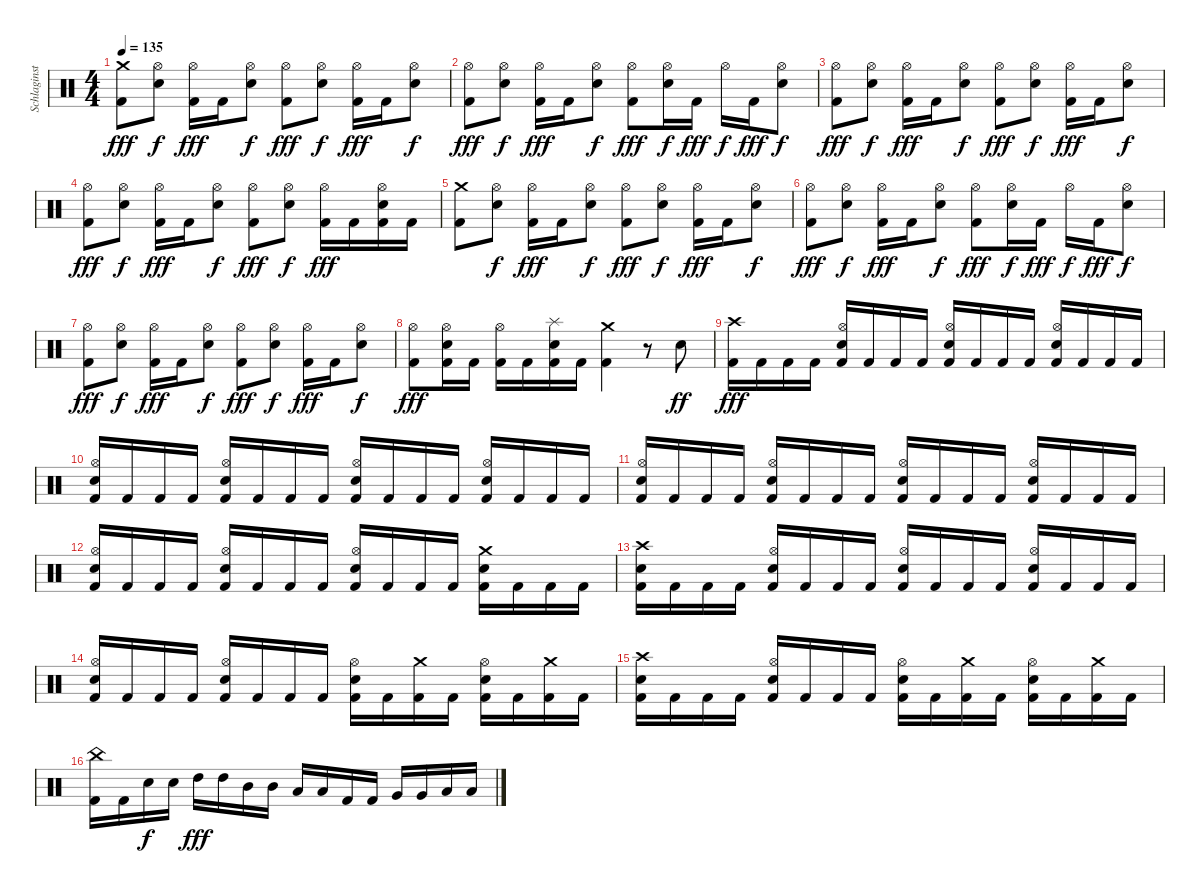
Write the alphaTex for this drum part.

\track ("Schlaginstrumente - Auswahl" "Schlaginst") {instrument percussion}
\staff {score}
\articulation defaults
\ts (4 4)
\tempo 135
\clef neutral
\ks c
("Crash medium (hit)" "Kick (hit) 2").8{dy fff} ("Hi-Hat (open)" "Snare (hit) 2").8{dy f} ("Hi-Hat (open)" "Kick (hit) 2").16{dy fff} "Kick (hit) 2".16 ("Hi-Hat (open)" "Snare (hit) 2").8{dy f} ("Hi-Hat (open)" "Kick (hit) 2").8{dy fff} ("Hi-Hat (open)" "Snare (hit) 2").8{dy f} ("Hi-Hat (open)" "Kick (hit) 2").16{dy fff} "Kick (hit) 2".16 ("Hi-Hat (open)" "Snare (hit) 2").8{dy f} |
("Hi-Hat (open)" "Kick (hit) 2").8{dy fff} ("Hi-Hat (open)" "Snare (hit) 2").8{dy f} ("Hi-Hat (open)" "Kick (hit) 2").16{dy fff} "Kick (hit) 2".16 ("Hi-Hat (open)" "Snare (hit) 2").8{dy f} ("Hi-Hat (open)" "Kick (hit) 2").8{dy fff} ("Hi-Hat (open)" "Snare (hit) 2").16{dy f} "Kick (hit) 2".16{dy fff} "Hi-Hat (open)".16{dy f} "Kick (hit) 2".16{dy fff} ("Hi-Hat (open)" "Snare (hit) 2").8{dy f} |
("Hi-Hat (open)" "Kick (hit) 2").8{dy fff} ("Hi-Hat (open)" "Snare (hit) 2").8{dy f} ("Hi-Hat (open)" "Kick (hit) 2").16{dy fff} "Kick (hit) 2".16 ("Hi-Hat (open)" "Snare (hit) 2").8{dy f} ("Hi-Hat (open)" "Kick (hit) 2").8{dy fff} ("Hi-Hat (open)" "Snare (hit) 2").8{dy f} ("Hi-Hat (open)" "Kick (hit) 2").16{dy fff} "Kick (hit) 2".16 ("Hi-Hat (open)" "Snare (hit) 2").8{dy f} |
("Hi-Hat (open)" "Kick (hit) 2").8{dy fff} ("Hi-Hat (open)" "Snare (hit) 2").8{dy f} ("Hi-Hat (open)" "Kick (hit) 2").16{dy fff} "Kick (hit) 2".16 ("Hi-Hat (open)" "Snare (hit) 2").8{dy f} ("Hi-Hat (open)" "Kick (hit) 2").8{dy fff} ("Hi-Hat (open)" "Snare (hit) 2").8{dy f} ("Hi-Hat (open)" "Kick (hit) 2").16{dy fff} "Kick (hit) 2".16 ("Hi-Hat (open)" "Snare (hit) 2" "Kick (hit) 2").16 "Kick (hit) 2".16 |
("Crash medium (hit)" "Kick (hit) 2").8 ("Hi-Hat (open)" "Snare (hit) 2").8{dy f} ("Hi-Hat (open)" "Kick (hit) 2").16{dy fff} "Kick (hit) 2".16 ("Hi-Hat (open)" "Snare (hit) 2").8{dy f} ("Hi-Hat (open)" "Kick (hit) 2").8{dy fff} ("Hi-Hat (open)" "Snare (hit) 2").8{dy f} ("Hi-Hat (open)" "Kick (hit) 2").16{dy fff} "Kick (hit) 2".16 ("Hi-Hat (open)" "Snare (hit) 2").8{dy f} |
("Hi-Hat (open)" "Kick (hit) 2").8{dy fff} ("Hi-Hat (open)" "Snare (hit) 2").8{dy f} ("Hi-Hat (open)" "Kick (hit) 2").16{dy fff} "Kick (hit) 2".16 ("Hi-Hat (open)" "Snare (hit) 2").8{dy f} ("Hi-Hat (open)" "Kick (hit) 2").8{dy fff} ("Hi-Hat (open)" "Snare (hit) 2").16{dy f} "Kick (hit) 2".16{dy fff} "Hi-Hat (open)".16{dy f} "Kick (hit) 2".16{dy fff} ("Hi-Hat (open)" "Snare (hit) 2").8{dy f} |
("Hi-Hat (open)" "Kick (hit) 2").8{dy fff} ("Hi-Hat (open)" "Snare (hit) 2").8{dy f} ("Hi-Hat (open)" "Kick (hit) 2").16{dy fff} "Kick (hit) 2".16 ("Hi-Hat (open)" "Snare (hit) 2").8{dy f} ("Hi-Hat (open)" "Kick (hit) 2").8{dy fff} ("Hi-Hat (open)" "Snare (hit) 2").8{dy f} ("Hi-Hat (open)" "Kick (hit) 2").16{dy fff} "Kick (hit) 2".16 ("Hi-Hat (open)" "Snare (hit) 2").8{dy f} |
("Hi-Hat (open)" "Kick (hit) 2").8{dy fff} ("Hi-Hat (open)" "Snare (hit) 2" "Kick (hit) 2").16 "Kick (hit) 2".16 ("Hi-Hat (open)" "Kick (hit) 2").16 "Kick (hit) 2".16 ("Splash (hit)" "Snare (hit) 2" "Kick (hit) 2").16 "Kick (hit) 2".16 ("Crash medium (hit)" "Kick (hit) 2").4 r.8 "Snare (hit) 2".8{dy ff} |
("Crash high (hit)" "Kick (hit) 2").16{dy fff} "Kick (hit) 2".16 "Kick (hit) 2".16 "Kick (hit) 2".16 ("Hi-Hat (open)" "Snare (hit) 2" "Kick (hit) 2").16 "Kick (hit) 2".16 "Kick (hit) 2".16 "Kick (hit) 2".16 ("Hi-Hat (open)" "Snare (hit) 2" "Kick (hit) 2").16 "Kick (hit) 2".16 "Kick (hit) 2".16 "Kick (hit) 2".16 ("Hi-Hat (open)" "Snare (hit) 2" "Kick (hit) 2").16 "Kick (hit) 2".16 "Kick (hit) 2".16 "Kick (hit) 2".16 |
("Hi-Hat (open)" "Snare (hit) 2" "Kick (hit) 2").16 "Kick (hit) 2".16 "Kick (hit) 2".16 "Kick (hit) 2".16 ("Hi-Hat (open)" "Snare (hit) 2" "Kick (hit) 2").16 "Kick (hit) 2".16 "Kick (hit) 2".16 "Kick (hit) 2".16 ("Hi-Hat (open)" "Snare (hit) 2" "Kick (hit) 2").16 "Kick (hit) 2".16 "Kick (hit) 2".16 "Kick (hit) 2".16 ("Hi-Hat (open)" "Snare (hit) 2" "Kick (hit) 2").16 "Kick (hit) 2".16 "Kick (hit) 2".16 "Kick (hit) 2".16 |
("Hi-Hat (open)" "Snare (hit) 2" "Kick (hit) 2").16 "Kick (hit) 2".16 "Kick (hit) 2".16 "Kick (hit) 2".16 ("Hi-Hat (open)" "Snare (hit) 2" "Kick (hit) 2").16 "Kick (hit) 2".16 "Kick (hit) 2".16 "Kick (hit) 2".16 ("Hi-Hat (open)" "Snare (hit) 2" "Kick (hit) 2").16 "Kick (hit) 2".16 "Kick (hit) 2".16 "Kick (hit) 2".16 ("Hi-Hat (open)" "Snare (hit) 2" "Kick (hit) 2").16 "Kick (hit) 2".16 "Kick (hit) 2".16 "Kick (hit) 2".16 |
("Hi-Hat (open)" "Snare (hit) 2" "Kick (hit) 2").16 "Kick (hit) 2".16 "Kick (hit) 2".16 "Kick (hit) 2".16 ("Hi-Hat (open)" "Snare (hit) 2" "Kick (hit) 2").16 "Kick (hit) 2".16 "Kick (hit) 2".16 "Kick (hit) 2".16 ("Hi-Hat (open)" "Snare (hit) 2" "Kick (hit) 2").16 "Kick (hit) 2".16 "Kick (hit) 2".16 "Kick (hit) 2".16 ("Crash medium (hit)" "Snare (hit) 2" "Kick (hit) 2").16 "Kick (hit) 2".16 "Kick (hit) 2".16 "Kick (hit) 2".16 |
("Crash high (hit)" "Snare (hit) 2" "Kick (hit) 2").16 "Kick (hit) 2".16 "Kick (hit) 2".16 "Kick (hit) 2".16 ("Hi-Hat (open)" "Snare (hit) 2" "Kick (hit) 2").16 "Kick (hit) 2".16 "Kick (hit) 2".16 "Kick (hit) 2".16 ("Hi-Hat (open)" "Snare (hit) 2" "Kick (hit) 2").16 "Kick (hit) 2".16 "Kick (hit) 2".16 "Kick (hit) 2".16 ("Hi-Hat (open)" "Snare (hit) 2" "Kick (hit) 2").16 "Kick (hit) 2".16 "Kick (hit) 2".16 "Kick (hit) 2".16 |
("Hi-Hat (open)" "Snare (hit) 2" "Kick (hit) 2").16 "Kick (hit) 2".16 "Kick (hit) 2".16 "Kick (hit) 2".16 ("Hi-Hat (open)" "Snare (hit) 2" "Kick (hit) 2").16 "Kick (hit) 2".16 "Kick (hit) 2".16 "Kick (hit) 2".16 ("Hi-Hat (open)" "Snare (hit) 2" "Kick (hit) 2").16 "Kick (hit) 2".16 ("Crash medium (hit)" "Kick (hit) 2").16 "Kick (hit) 2".16 ("Hi-Hat (open)" "Snare (hit) 2" "Kick (hit) 2").16 "Kick (hit) 2".16 ("Crash medium (hit)" "Kick (hit) 2").16 "Kick (hit) 2".16 |
("Crash high (hit)" "Snare (hit) 2" "Kick (hit) 2").16 "Kick (hit) 2".16 "Kick (hit) 2".16 "Kick (hit) 2".16 ("Hi-Hat (open)" "Snare (hit) 2" "Kick (hit) 2").16 "Kick (hit) 2".16 "Kick (hit) 2".16 "Kick (hit) 2".16 ("Hi-Hat (open)" "Snare (hit) 2" "Kick (hit) 2").16 "Kick (hit) 2".16 ("Crash medium (hit)" "Kick (hit) 2").16 "Kick (hit) 2".16 ("Hi-Hat (open)" "Snare (hit) 2" "Kick (hit) 2").16 "Kick (hit) 2".16 ("Crash medium (hit)" "Kick (hit) 2").16 "Kick (hit) 2".16 |
("China (hit)" "Kick (hit) 2").16 "Kick (hit) 2".16 "Snare (hit) 2".16{dy f} "Snare (hit) 2".16 "High Tom (hit)".16{dy fff} "High Tom (hit)".16 "Mid Tom (hit)".16 "Mid Tom (hit)".16 "Low Tom (hit)".16 "Low Tom (hit)".16 "Kick (hit) 2".16 "Kick (hit) 2".16 "Very Low Tom (hit)".16 "Very Low Tom (hit)".16 "Low Floor Tom (hit)".16 "Low Floor Tom (hit)".16
